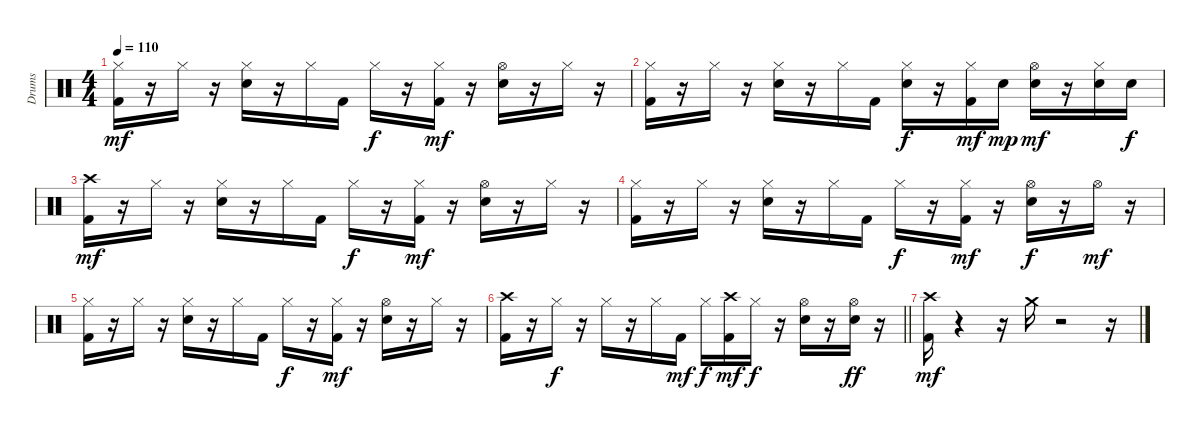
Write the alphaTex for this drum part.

\track ("Drums" "Drums") {instrument percussion}
\staff {score}
\articulation defaults
\ts (4 4)
\tempo 110
\clef neutral
\ks c
("Kick (hit) 2" "Hi-Hat (closed)").16{dy mf} r.16 "Hi-Hat (closed)".16 r.16 ("Snare (hit) 2" "Hi-Hat (closed)").16 r.16 "Hi-Hat (closed)".16 "Kick (hit) 2".16 "Hi-Hat (closed)".16{dy f} r.16 ("Kick (hit) 2" "Hi-Hat (closed)").16{dy mf} r.16 ("Snare (hit) 2" "Hi-Hat (open)").16 r.16 "Hi-Hat (closed)".16 r.16 |
("Kick (hit) 2" "Hi-Hat (closed)").16 r.16 "Hi-Hat (closed)".16 r.16 ("Snare (hit) 2" "Hi-Hat (closed)").16 r.16 "Hi-Hat (closed)".16 "Kick (hit) 2".16 ("Snare (hit) 2" "Hi-Hat (closed)").16{dy f} r.16 ("Kick (hit) 2" "Hi-Hat (closed)").16{dy mf} "Snare (hit) 2".16{dy mp} ("Snare (hit) 2" "Hi-Hat (open)").16{dy mf} r.16 ("Snare (hit) 2" "Hi-Hat (closed)").16 "Snare (hit) 2".16{dy f} |
("Kick (hit) 2" "Crash high (hit)").16{dy mf} r.16 "Hi-Hat (closed)".16 r.16 ("Snare (hit) 2" "Hi-Hat (closed)").16 r.16 "Hi-Hat (closed)".16 "Kick (hit) 2".16 "Hi-Hat (closed)".16{dy f} r.16 ("Kick (hit) 2" "Hi-Hat (closed)").16{dy mf} r.16 ("Snare (hit) 2" "Hi-Hat (open)").16 r.16 "Hi-Hat (closed)".16 r.16 |
("Kick (hit) 2" "Hi-Hat (closed)").16 r.16 "Hi-Hat (closed)".16 r.16 ("Snare (hit) 2" "Hi-Hat (closed)").16 r.16 "Hi-Hat (closed)".16 "Kick (hit) 2".16 "Hi-Hat (closed)".16{dy f} r.16 ("Kick (hit) 2" "Hi-Hat (closed)").16{dy mf} r.16 ("Snare (hit) 2" "Hi-Hat (open)").16{dy f} r.16 "Hi-Hat (open)".16{dy mf} r.16 |
("Kick (hit) 2" "Hi-Hat (closed)").16 r.16 "Hi-Hat (closed)".16 r.16 ("Snare (hit) 2" "Hi-Hat (closed)").16 r.16 "Hi-Hat (closed)".16 "Kick (hit) 2".16 "Hi-Hat (closed)".16{dy f} r.16 ("Kick (hit) 2" "Hi-Hat (closed)").16{dy mf} r.16 ("Snare (hit) 2" "Hi-Hat (open)").16 r.16 "Hi-Hat (closed)".16 r.16 |
\barLineRight lightlight
("Kick (hit) 2" "Crash high (hit)").16 r.16 "Hi-Hat (closed)".16{dy f} r.16 "Hi-Hat (closed)".16 r.16 "Hi-Hat (closed)".16 "Kick (hit) 2".16{dy mf} "Hi-Hat (closed)".16{dy f} ("Kick (hit) 2" "Crash high (hit)").16{dy mf} "Hi-Hat (closed)".16{dy f} r.16 ("Snare (hit) 2" "Hi-Hat (open)").16 r.16 ("Snare (hit) 2" "Hi-Hat (open)").16{dy ff} r.16 |
("Kick (hit) 2" "Crash high (hit)").16{dy mf} r.4 r.16 "Crash medium (hit)".16 r.2 r.16
